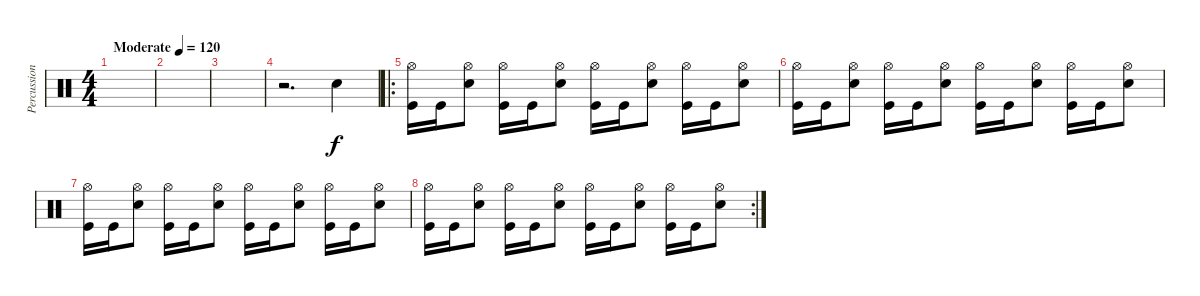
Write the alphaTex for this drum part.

\track ("Percussion" "Percussion") {instrument percussion}
\staff {score}
\articulation defaults
\ts (4 4)
\tempo (120 "Moderate")
\clef neutral
\ks c
|
|
|
r.2{d} "Snare (hit) 2".4 |
\ro
("Hi-Hat (open)" "Kick (hit)").16 "Kick (hit)".16 ("Hi-Hat (open)" "Snare (hit) 2").8 ("Hi-Hat (open)" "Kick (hit)").16 "Kick (hit)".16 ("Hi-Hat (open)" "Snare (hit) 2").8 ("Hi-Hat (open)" "Kick (hit)").16 "Kick (hit)".16 ("Hi-Hat (open)" "Snare (hit) 2").8 ("Hi-Hat (open)" "Kick (hit)").16 "Kick (hit)".16 ("Hi-Hat (open)" "Snare (hit) 2").8 |
("Hi-Hat (open)" "Kick (hit)").16 "Kick (hit)".16 ("Hi-Hat (open)" "Snare (hit) 2").8 ("Hi-Hat (open)" "Kick (hit)").16 "Kick (hit)".16 ("Hi-Hat (open)" "Snare (hit) 2").8 ("Hi-Hat (open)" "Kick (hit)").16 "Kick (hit)".16 ("Hi-Hat (open)" "Snare (hit) 2").8 ("Hi-Hat (open)" "Kick (hit)").16 "Kick (hit)".16 ("Hi-Hat (open)" "Snare (hit) 2").8 |
("Hi-Hat (open)" "Kick (hit)").16 "Kick (hit)".16 ("Hi-Hat (open)" "Snare (hit) 2").8 ("Hi-Hat (open)" "Kick (hit)").16 "Kick (hit)".16 ("Hi-Hat (open)" "Snare (hit) 2").8 ("Hi-Hat (open)" "Kick (hit)").16 "Kick (hit)".16 ("Hi-Hat (open)" "Snare (hit) 2").8 ("Hi-Hat (open)" "Kick (hit)").16 "Kick (hit)".16 ("Hi-Hat (open)" "Snare (hit) 2").8 |
\rc 2
("Hi-Hat (open)" "Kick (hit)").16 "Kick (hit)".16 ("Hi-Hat (open)" "Snare (hit) 2").8 ("Hi-Hat (open)" "Kick (hit)").16 "Kick (hit)".16 ("Hi-Hat (open)" "Snare (hit) 2").8 ("Hi-Hat (open)" "Kick (hit)").16 "Kick (hit)".16 ("Hi-Hat (open)" "Snare (hit) 2").8 ("Hi-Hat (open)" "Kick (hit)").16 "Kick (hit)".16 ("Hi-Hat (open)" "Snare (hit) 2").8
